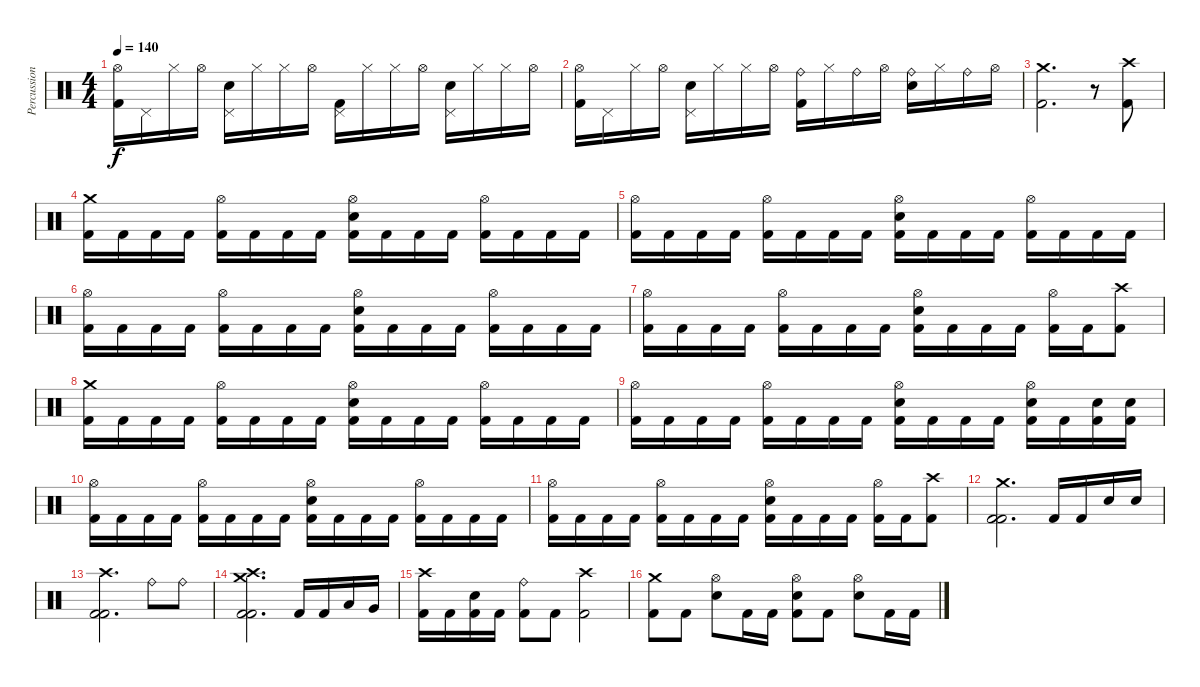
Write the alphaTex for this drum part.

\track ("Percussion" "Percussion") {instrument percussion}
\staff {score}
\articulation defaults
\ts (4 4)
\tempo 140
\clef neutral
\ks c
("Hi-Hat (open)" "Kick (hit) 2").16{dy f} "Pedal Hi-Hat (hit)".16 "Hi-Hat (closed)".16 "Hi-Hat (open)".16 ("Pedal Hi-Hat (hit)" "Electric Snare (hit)").16 "Hi-Hat (closed)".16 "Hi-Hat (closed)".16 "Hi-Hat (open)".16 ("Pedal Hi-Hat (hit)" "Kick (hit) 2").16 "Hi-Hat (closed)".16 "Hi-Hat (closed)".16 "Hi-Hat (open)".16 ("Pedal Hi-Hat (hit)" "Electric Snare (hit)").16 "Hi-Hat (closed)".16 "Hi-Hat (closed)".16 "Hi-Hat (open)".16 |
("Hi-Hat (open)" "Kick (hit) 2").16 "Pedal Hi-Hat (hit)".16 "Hi-Hat (closed)".16 "Hi-Hat (open)".16 ("Pedal Hi-Hat (hit)" "Electric Snare (hit)").16 "Hi-Hat (closed)".16 "Hi-Hat (closed)".16 "Hi-Hat (open)".16 ("Ride (bell)" "Kick (hit) 2").16 "Hi-Hat (closed)".16 "Ride (bell)".16 "Hi-Hat (open)".16 ("Ride (bell)" "Electric Snare (hit)").16 "Hi-Hat (closed)".16 "Ride (bell)".16 "Hi-Hat (open)".16 |
("Crash medium (hit)" "Kick (hit) 2").2{d} r.8 ("Crash high (hit)" "Kick (hit) 2").8 |
("Crash medium (hit)" "Kick (hit) 2").16 "Kick (hit) 2".16 "Kick (hit) 2".16 "Kick (hit) 2".16 ("Hi-Hat (open)" "Kick (hit) 2").16 "Kick (hit) 2".16 "Kick (hit) 2".16 "Kick (hit) 2".16 ("Hi-Hat (open)" "Electric Snare (hit)" "Kick (hit) 2").16 "Kick (hit) 2".16 "Kick (hit) 2".16 "Kick (hit) 2".16 ("Hi-Hat (open)" "Kick (hit) 2").16 "Kick (hit) 2".16 "Kick (hit) 2".16 "Kick (hit) 2".16 |
("Hi-Hat (open)" "Kick (hit) 2").16 "Kick (hit) 2".16 "Kick (hit) 2".16 "Kick (hit) 2".16 ("Hi-Hat (open)" "Kick (hit) 2").16 "Kick (hit) 2".16 "Kick (hit) 2".16 "Kick (hit) 2".16 ("Hi-Hat (open)" "Electric Snare (hit)" "Kick (hit) 2").16 "Kick (hit) 2".16 "Kick (hit) 2".16 "Kick (hit) 2".16 ("Hi-Hat (open)" "Kick (hit) 2").16 "Kick (hit) 2".16 "Kick (hit) 2".16 "Kick (hit) 2".16 |
("Hi-Hat (open)" "Kick (hit) 2").16 "Kick (hit) 2".16 "Kick (hit) 2".16 "Kick (hit) 2".16 ("Hi-Hat (open)" "Kick (hit) 2").16 "Kick (hit) 2".16 "Kick (hit) 2".16 "Kick (hit) 2".16 ("Hi-Hat (open)" "Electric Snare (hit)" "Kick (hit) 2").16 "Kick (hit) 2".16 "Kick (hit) 2".16 "Kick (hit) 2".16 ("Hi-Hat (open)" "Kick (hit) 2").16 "Kick (hit) 2".16 "Kick (hit) 2".16 "Kick (hit) 2".16 |
("Hi-Hat (open)" "Kick (hit) 2").16 "Kick (hit) 2".16 "Kick (hit) 2".16 "Kick (hit) 2".16 ("Hi-Hat (open)" "Kick (hit) 2").16 "Kick (hit) 2".16 "Kick (hit) 2".16 "Kick (hit) 2".16 ("Hi-Hat (open)" "Electric Snare (hit)" "Kick (hit) 2").16 "Kick (hit) 2".16 "Kick (hit) 2".16 "Kick (hit) 2".16 ("Hi-Hat (open)" "Kick (hit) 2").16 "Kick (hit) 2".16 ("Crash high (hit)" "Kick (hit) 2").8 |
("Crash medium (hit)" "Kick (hit) 2").16 "Kick (hit) 2".16 "Kick (hit) 2".16 "Kick (hit) 2".16 ("Hi-Hat (open)" "Kick (hit) 2").16 "Kick (hit) 2".16 "Kick (hit) 2".16 "Kick (hit) 2".16 ("Hi-Hat (open)" "Electric Snare (hit)" "Kick (hit) 2").16 "Kick (hit) 2".16 "Kick (hit) 2".16 "Kick (hit) 2".16 ("Hi-Hat (open)" "Kick (hit) 2").16 "Kick (hit) 2".16 "Kick (hit) 2".16 "Kick (hit) 2".16 |
("Hi-Hat (open)" "Kick (hit) 2").16 "Kick (hit) 2".16 "Kick (hit) 2".16 "Kick (hit) 2".16 ("Hi-Hat (open)" "Kick (hit) 2").16 "Kick (hit) 2".16 "Kick (hit) 2".16 "Kick (hit) 2".16 ("Hi-Hat (open)" "Electric Snare (hit)" "Kick (hit) 2").16 "Kick (hit) 2".16 "Kick (hit) 2".16 "Kick (hit) 2".16 ("Hi-Hat (open)" "Electric Snare (hit)" "Kick (hit) 2").16 "Kick (hit) 2".16 ("Electric Snare (hit)" "Kick (hit) 2").16 ("Electric Snare (hit)" "Kick (hit) 2").16 |
("Hi-Hat (open)" "Kick (hit) 2").16 "Kick (hit) 2".16 "Kick (hit) 2".16 "Kick (hit) 2".16 ("Hi-Hat (open)" "Kick (hit) 2").16 "Kick (hit) 2".16 "Kick (hit) 2".16 "Kick (hit) 2".16 ("Hi-Hat (open)" "Electric Snare (hit)" "Kick (hit) 2").16 "Kick (hit) 2".16 "Kick (hit) 2".16 "Kick (hit) 2".16 ("Hi-Hat (open)" "Kick (hit) 2").16 "Kick (hit) 2".16 "Kick (hit) 2".16 "Kick (hit) 2".16 |
("Hi-Hat (open)" "Kick (hit) 2").16 "Kick (hit) 2".16 "Kick (hit) 2".16 "Kick (hit) 2".16 ("Hi-Hat (open)" "Kick (hit) 2").16 "Kick (hit) 2".16 "Kick (hit) 2".16 "Kick (hit) 2".16 ("Hi-Hat (open)" "Electric Snare (hit)" "Kick (hit) 2").16 "Kick (hit) 2".16 "Kick (hit) 2".16 "Kick (hit) 2".16 ("Hi-Hat (open)" "Kick (hit) 2").16 "Kick (hit) 2".16 ("Crash high (hit)" "Kick (hit) 2").8 |
("Crash medium (hit)" "Kick (hit) 2" "Kick (hit) 2").2{d} "Kick (hit) 2".16 "Kick (hit) 2".16 "Electric Snare (hit)".16 "Electric Snare (hit)".16 |
("Crash high (hit)" "Kick (hit) 2" "Kick (hit) 2").2{d} "Ride (bell)".8 "Ride (bell)".8 |
("Crash medium (hit)" "Crash high (hit)" "Kick (hit) 2" "Kick (hit) 2").2{d} "Kick (hit) 2".16 "Kick (hit) 2".16 "Low Tom (hit)".16 "Very Low Tom (hit)".16 |
("Crash high (hit)" "Kick (hit) 2").16 "Kick (hit) 2".16 ("Electric Snare (hit)" "Kick (hit) 2").16 "Kick (hit) 2".16 ("Ride (bell)" "Kick (hit) 2").8 "Kick (hit) 2".8 ("Crash high (hit)" "Kick (hit) 2").2 |
("Crash medium (hit)" "Kick (hit) 2").8 "Kick (hit) 2".8 ("Hi-Hat (open)" "Electric Snare (hit)").8 "Kick (hit) 2".16 "Kick (hit) 2".16 ("Hi-Hat (open)" "Electric Snare (hit)" "Kick (hit) 2").8 "Kick (hit) 2".8 ("Hi-Hat (open)" "Electric Snare (hit)").8 "Kick (hit) 2".16 "Kick (hit) 2".16
